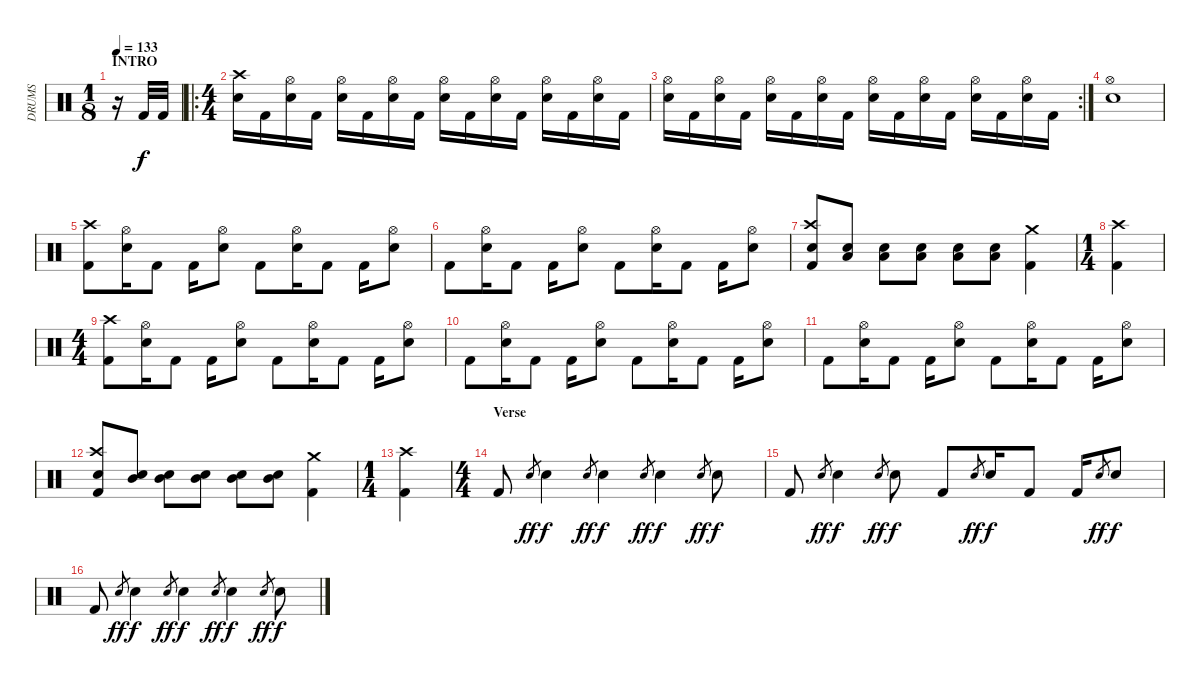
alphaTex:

\track ("DRUMS" "DRUMS") {instrument percussion}
\staff {score}
\articulation defaults
\ts (1 8)
\section ("" "INTRO")
\tempo 133
\clef neutral
\ks c
r.16{dy f} "Kick (hit) 2".32 "Kick (hit) 2".32 |
\ro
\ts (4 4)
("Crash high (hit)" "Electric Snare (hit)").16 "Kick (hit) 2".16 ("Hi-Hat (open)" "Electric Snare (hit)").16 "Kick (hit) 2".16 ("Hi-Hat (open)" "Electric Snare (hit)").16 "Kick (hit) 2".16 ("Hi-Hat (open)" "Electric Snare (hit)").16 "Kick (hit) 2".16 ("Hi-Hat (open)" "Electric Snare (hit)").16 "Kick (hit) 2".16 ("Hi-Hat (open)" "Electric Snare (hit)").16 "Kick (hit) 2".16 ("Hi-Hat (open)" "Electric Snare (hit)").16 "Kick (hit) 2".16 ("Hi-Hat (open)" "Electric Snare (hit)").16 "Kick (hit) 2".16 |
\rc 2
("Hi-Hat (open)" "Electric Snare (hit)").16 "Kick (hit) 2".16 ("Hi-Hat (open)" "Electric Snare (hit)").16 "Kick (hit) 2".16 ("Hi-Hat (open)" "Electric Snare (hit)").16 "Kick (hit) 2".16 ("Hi-Hat (open)" "Electric Snare (hit)").16 "Kick (hit) 2".16 ("Hi-Hat (open)" "Electric Snare (hit)").16 "Kick (hit) 2".16 ("Hi-Hat (open)" "Electric Snare (hit)").16 "Kick (hit) 2".16 ("Hi-Hat (open)" "Electric Snare (hit)").16 "Kick (hit) 2".16 ("Hi-Hat (open)" "Electric Snare (hit)").16 "Kick (hit) 2".16 |
("Hi-Hat (open)" "Electric Snare (hit)").1 |
("Crash high (hit)" "Kick (hit) 2").8 ("Hi-Hat (open)" "Electric Snare (hit)").16 "Kick (hit) 2".8 "Kick (hit) 2".16 ("Hi-Hat (open)" "Electric Snare (hit)").8 "Kick (hit) 2".8 ("Hi-Hat (open)" "Electric Snare (hit)").16 "Kick (hit) 2".8 "Kick (hit) 2".16 ("Hi-Hat (open)" "Electric Snare (hit)").8 |
"Kick (hit) 2".8 ("Hi-Hat (open)" "Electric Snare (hit)").16 "Kick (hit) 2".8 "Kick (hit) 2".16 ("Hi-Hat (open)" "Electric Snare (hit)").8 "Kick (hit) 2".8 ("Hi-Hat (open)" "Electric Snare (hit)").16 "Kick (hit) 2".8 "Kick (hit) 2".16 ("Hi-Hat (open)" "Electric Snare (hit)").8 |
("Crash high (hit)" "Electric Snare (hit)" "Kick (hit) 2").8 ("Low Floor Tom (hit)" "Electric Snare (hit)").8 ("Low Floor Tom (hit)" "Electric Snare (hit)").8 ("Low Floor Tom (hit)" "Electric Snare (hit)").8 ("Low Floor Tom (hit)" "Electric Snare (hit)").8 ("Low Floor Tom (hit)" "Electric Snare (hit)").8 ("Crash medium (hit)" "Kick (hit) 2").4 |
\ts (1 4)
("Crash high (hit)" "Kick (hit) 2").4 |
\ts (4 4)
("Crash high (hit)" "Kick (hit) 2").8 ("Hi-Hat (open)" "Electric Snare (hit)").16 "Kick (hit) 2".8 "Kick (hit) 2".16 ("Hi-Hat (open)" "Electric Snare (hit)").8 "Kick (hit) 2".8 ("Hi-Hat (open)" "Electric Snare (hit)").16 "Kick (hit) 2".8 "Kick (hit) 2".16 ("Hi-Hat (open)" "Electric Snare (hit)").8 |
"Kick (hit) 2".8 ("Hi-Hat (open)" "Electric Snare (hit)").16 "Kick (hit) 2".8 "Kick (hit) 2".16 ("Hi-Hat (open)" "Electric Snare (hit)").8 "Kick (hit) 2".8 ("Hi-Hat (open)" "Electric Snare (hit)").16 "Kick (hit) 2".8 "Kick (hit) 2".16 ("Hi-Hat (open)" "Electric Snare (hit)").8 |
"Kick (hit) 2".8 ("Hi-Hat (open)" "Electric Snare (hit)").16 "Kick (hit) 2".8 "Kick (hit) 2".16 ("Hi-Hat (open)" "Electric Snare (hit)").8 "Kick (hit) 2".8 ("Hi-Hat (open)" "Electric Snare (hit)").16 "Kick (hit) 2".8 "Kick (hit) 2".16 ("Hi-Hat (open)" "Electric Snare (hit)").8 |
("Crash high (hit)" "Electric Snare (hit)" "Kick (hit) 2").8 ("Mid Tom (hit)" "Electric Snare (hit)").8 ("Mid Tom (hit)" "Electric Snare (hit)").8 ("Mid Tom (hit)" "Electric Snare (hit)").8 ("Mid Tom (hit)" "Electric Snare (hit)").8 ("Mid Tom (hit)" "Electric Snare (hit)").8 ("Crash medium (hit)" "Kick (hit) 2").4 |
\ts (1 4)
("Crash high (hit)" "Kick (hit) 2").4 |
\ts (4 4)
\section ("" "Verse")
"Kick (hit) 2".8 "Electric Snare (hit)".8{gr dy ff} "Electric Snare (hit)".4{dy f} "Electric Snare (hit)".8{gr dy ff} "Electric Snare (hit)".4{dy f} "Electric Snare (hit)".8{gr dy ff} "Electric Snare (hit)".4{dy f} "Electric Snare (hit)".8{gr dy ff} "Electric Snare (hit)".8{dy f} |
"Kick (hit) 2".8 "Electric Snare (hit)".8{gr dy ff} "Electric Snare (hit)".4{dy f} "Electric Snare (hit)".8{gr dy ff} "Electric Snare (hit)".8{dy f} "Kick (hit) 2".8 "Electric Snare (hit)".8{gr dy ff} "Electric Snare (hit)".16{dy f} "Kick (hit) 2".8 "Kick (hit) 2".16 "Electric Snare (hit)".8{gr dy ff} "Electric Snare (hit)".8{dy f} |
"Kick (hit) 2".8 "Electric Snare (hit)".8{gr dy ff} "Electric Snare (hit)".4{dy f} "Electric Snare (hit)".8{gr dy ff} "Electric Snare (hit)".4{dy f} "Electric Snare (hit)".8{gr dy ff} "Electric Snare (hit)".4{dy f} "Electric Snare (hit)".8{gr dy ff} "Electric Snare (hit)".8{dy f}
